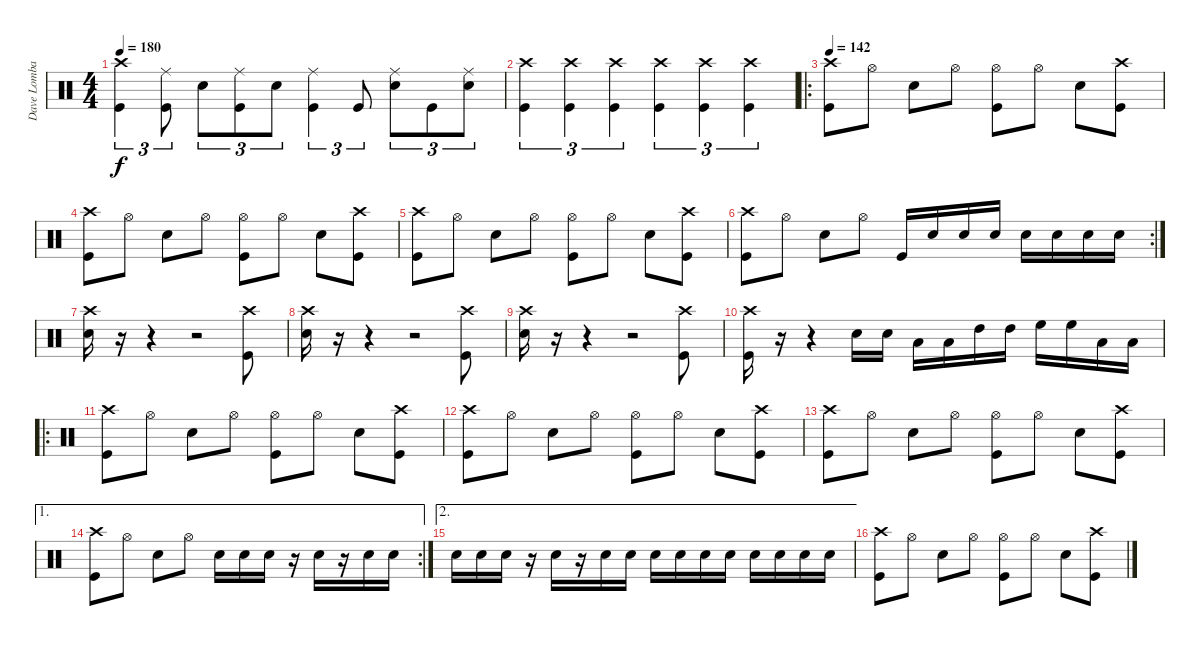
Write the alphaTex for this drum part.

\track ("Dave Lombardo" "Dave Lomba") {instrument percussion}
\staff {score}
\articulation defaults
\ts (4 4)
\tempo 180
\clef neutral
\ks c
("Crash high (hit)" "Kick (hit)").4{tu (3 2) dy f} ("Ride (middle)" "Kick (hit)").8{tu (3 2)} "Snare (hit) 2".8{tu (3 2)} ("Ride (middle)" "Kick (hit)").8{tu (3 2)} "Snare (hit) 2".8{tu (3 2)} ("Ride (middle)" "Kick (hit)").4{tu (3 2)} "Kick (hit)".8{tu (3 2)} ("Ride (middle)" "Snare (hit) 2").8{tu (3 2)} "Kick (hit)".8{tu (3 2)} ("Ride (middle)" "Snare (hit) 2").8{tu (3 2)} |
("Crash high (hit)" "Kick (hit)").4{tu (3 2)} ("Crash high (hit)" "Kick (hit)").4{tu (3 2)} ("Crash high (hit)" "Kick (hit)").4{tu (3 2)} ("Crash high (hit)" "Kick (hit)").4{tu (3 2)} ("Crash high (hit)" "Kick (hit)").4{tu (3 2)} ("Crash high (hit)" "Kick (hit)").4{tu (3 2)} |
\ro
\tempo 142
("Kick (hit)" "Crash high (hit)").8 "Hi-Hat (open)".8 "Snare (hit) 2".8 "Hi-Hat (open)".8 ("Hi-Hat (open)" "Kick (hit)").8 "Hi-Hat (open)".8 "Snare (hit) 2".8 ("Crash high (hit)" "Kick (hit)").8 |
("Crash high (hit)" "Kick (hit)").8 "Hi-Hat (open)".8 "Snare (hit) 2".8 "Hi-Hat (open)".8 ("Hi-Hat (open)" "Kick (hit)").8 "Hi-Hat (open)".8 "Snare (hit) 2".8 ("Crash high (hit)" "Kick (hit)").8 |
("Kick (hit)" "Crash high (hit)").8 "Hi-Hat (open)".8 "Snare (hit) 2".8 "Hi-Hat (open)".8 ("Hi-Hat (open)" "Kick (hit)").8 "Hi-Hat (open)".8 "Snare (hit) 2".8 ("Crash high (hit)" "Kick (hit)").8 |
\rc 2
("Crash high (hit)" "Kick (hit)").8 "Hi-Hat (open)".8 "Snare (hit) 2".8 "Hi-Hat (open)".8 "Kick (hit)".16 "Snare (hit) 2".16 "Snare (hit) 2".16 "Snare (hit) 2".16 "Snare (hit) 2".16 "Snare (hit) 2".16 "Snare (hit) 2".16 "Snare (hit) 2".16 |
("Crash high (hit)" "Snare (hit) 2").16 r.16 r.4 r.2 ("Crash high (hit)" "Kick (hit)").8 |
("Crash high (hit)" "Snare (hit) 2").16 r.16 r.4 r.2 ("Crash high (hit)" "Kick (hit)").8 |
("Crash high (hit)" "Snare (hit) 2").16 r.16 r.4 r.2 ("Crash high (hit)" "Kick (hit)").8 |
("Crash high (hit)" "Kick (hit)").16 r.16 r.4 "Snare (hit) 2".16 "Snare (hit) 2".16 "Low Floor Tom (hit)".16 "Low Floor Tom (hit)".16 "High Tom (hit)".16 "High Tom (hit)".16 "High Floor Tom (hit)".16 "High Floor Tom (hit)".16 "Low Tom (hit)".16 "Low Tom (hit)".16 |
\ro
("Kick (hit)" "Crash high (hit)").8 "Hi-Hat (open)".8 "Snare (hit) 2".8 "Hi-Hat (open)".8 ("Hi-Hat (open)" "Kick (hit)").8 "Hi-Hat (open)".8 "Snare (hit) 2".8 ("Crash high (hit)" "Kick (hit)").8 |
("Crash high (hit)" "Kick (hit)").8 "Hi-Hat (open)".8 "Snare (hit) 2".8 "Hi-Hat (open)".8 ("Hi-Hat (open)" "Kick (hit)").8 "Hi-Hat (open)".8 "Snare (hit) 2".8 ("Crash high (hit)" "Kick (hit)").8 |
("Kick (hit)" "Crash high (hit)").8 "Hi-Hat (open)".8 "Snare (hit) 2".8 "Hi-Hat (open)".8 ("Hi-Hat (open)" "Kick (hit)").8 "Hi-Hat (open)".8 "Snare (hit) 2".8 ("Crash high (hit)" "Kick (hit)").8 |
\ae 1
\rc 2
("Crash high (hit)" "Kick (hit)").8 "Hi-Hat (open)".8 "Snare (hit) 2".8 "Hi-Hat (open)".8 "Snare (hit) 2".16 "Snare (hit) 2".16 "Snare (hit) 2".16 r.16 "Snare (hit) 2".16 r.16 "Snare (hit) 2".16 "Snare (hit) 2".16 |
\ae 2 "Snare (hit) 2".16 "Snare (hit) 2".16 "Snare (hit) 2".16
r.16 "Snare (hit) 2".16 r.16 "Snare (hit) 2".16 "Snare (hit) 2".16 "Snare (hit) 2".16 "Snare (hit) 2".16 "Snare (hit) 2".16 "Snare (hit) 2".16 "Snare (hit) 2".16 "Snare (hit) 2".16 "Snare (hit) 2".16 "Snare (hit) 2".16 |
("Kick (hit)" "Crash high (hit)").8 "Hi-Hat (open)".8 "Snare (hit) 2".8 "Hi-Hat (open)".8 ("Hi-Hat (open)" "Kick (hit)").8 "Hi-Hat (open)".8 "Snare (hit) 2".8 ("Crash high (hit)" "Kick (hit)").8
